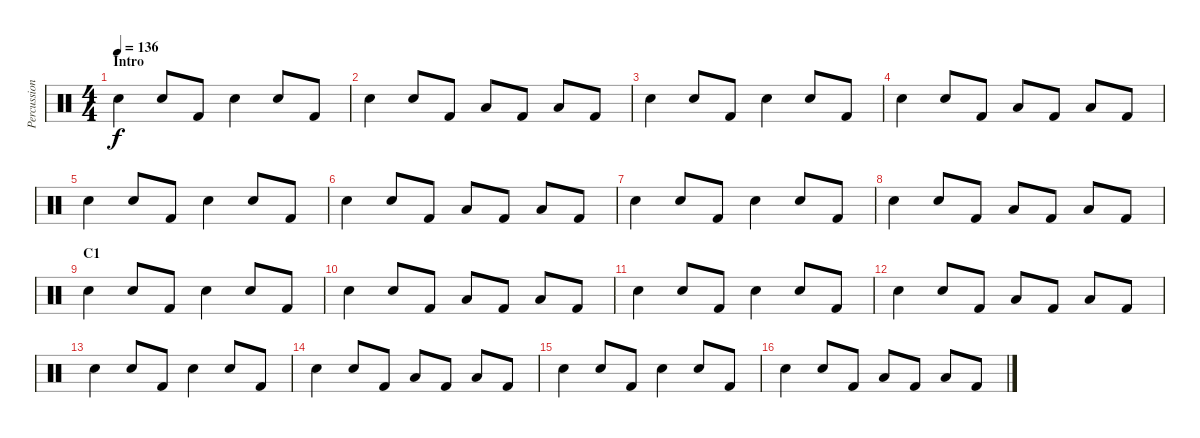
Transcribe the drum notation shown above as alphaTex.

\track ("Percussions" "Percussion") {instrument percussion}
\staff {score}
\articulation defaults
\ts (4 4)
\section ("" "Intro")
\tempo 136
\clef neutral
\ks c "Snare (hit) 2".4{dy f} "Snare (hit) 2".8 "Kick (hit) 2".8 "Snare (hit) 2".4 "Snare (hit) 2".8 "Kick (hit) 2".8
|
"Snare (hit) 2".4 "Snare (hit) 2".8 "Kick (hit) 2".8 "Low Tom (hit)".8 "Kick (hit) 2".8 "Low Floor Tom (hit)".8 "Kick (hit) 2".8 |
"Snare (hit) 2".4 "Snare (hit) 2".8 "Kick (hit) 2".8 "Snare (hit) 2".4 "Snare (hit) 2".8 "Kick (hit) 2".8 |
"Snare (hit) 2".4 "Snare (hit) 2".8 "Kick (hit) 2".8 "Low Tom (hit)".8 "Kick (hit) 2".8 "Low Floor Tom (hit)".8 "Kick (hit) 2".8 |
"Snare (hit) 2".4 "Snare (hit) 2".8 "Kick (hit) 2".8 "Snare (hit) 2".4 "Snare (hit) 2".8 "Kick (hit) 2".8 |
"Snare (hit) 2".4 "Snare (hit) 2".8 "Kick (hit) 2".8 "Low Tom (hit)".8 "Kick (hit) 2".8 "Low Floor Tom (hit)".8 "Kick (hit) 2".8 |
"Snare (hit) 2".4 "Snare (hit) 2".8 "Kick (hit) 2".8 "Snare (hit) 2".4 "Snare (hit) 2".8 "Kick (hit) 2".8 |
"Snare (hit) 2".4 "Snare (hit) 2".8 "Kick (hit) 2".8 "Low Tom (hit)".8 "Kick (hit) 2".8 "Low Floor Tom (hit)".8 "Kick (hit) 2".8 |
\section ("" "C1")
"Snare (hit) 2".4 "Snare (hit) 2".8 "Kick (hit) 2".8 "Snare (hit) 2".4 "Snare (hit) 2".8 "Kick (hit) 2".8 |
"Snare (hit) 2".4 "Snare (hit) 2".8 "Kick (hit) 2".8 "Low Tom (hit)".8 "Kick (hit) 2".8 "Low Floor Tom (hit)".8 "Kick (hit) 2".8 |
"Snare (hit) 2".4 "Snare (hit) 2".8 "Kick (hit) 2".8 "Snare (hit) 2".4 "Snare (hit) 2".8 "Kick (hit) 2".8 |
"Snare (hit) 2".4 "Snare (hit) 2".8 "Kick (hit) 2".8 "Low Tom (hit)".8 "Kick (hit) 2".8 "Low Floor Tom (hit)".8 "Kick (hit) 2".8 |
"Snare (hit) 2".4 "Snare (hit) 2".8 "Kick (hit) 2".8 "Snare (hit) 2".4 "Snare (hit) 2".8 "Kick (hit) 2".8 |
"Snare (hit) 2".4 "Snare (hit) 2".8 "Kick (hit) 2".8 "Low Tom (hit)".8 "Kick (hit) 2".8 "Low Floor Tom (hit)".8 "Kick (hit) 2".8 |
"Snare (hit) 2".4 "Snare (hit) 2".8 "Kick (hit) 2".8 "Snare (hit) 2".4 "Snare (hit) 2".8 "Kick (hit) 2".8 |
"Snare (hit) 2".4 "Snare (hit) 2".8 "Kick (hit) 2".8 "Low Tom (hit)".8 "Kick (hit) 2".8 "Low Floor Tom (hit)".8 "Kick (hit) 2".8
